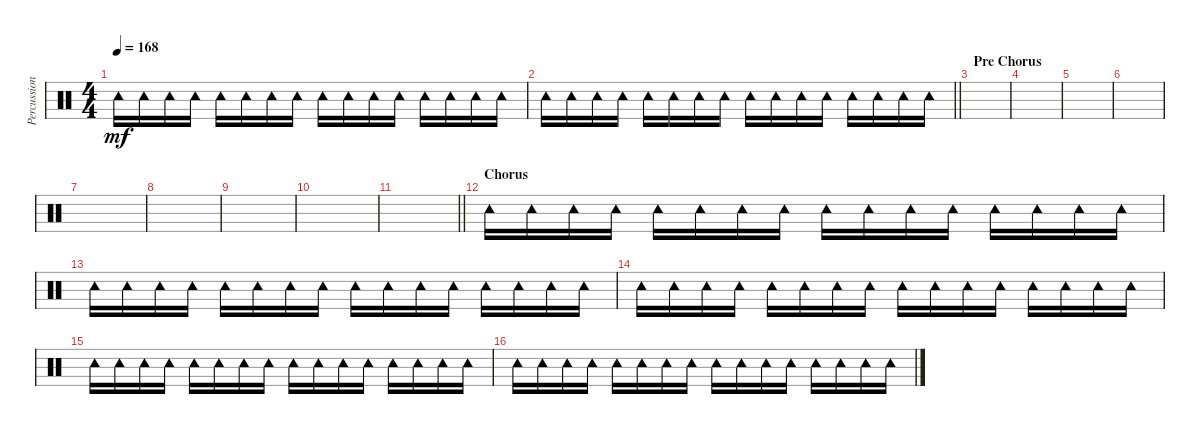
\track ("Percussion" "Percussion") {instrument percussion}
\staff {score}
\articulation defaults
\ts (4 4)
\tempo 168
\clef neutral
\ks c "Tambourine (hit)".16{dy mf} "Tambourine (hit)".16 "Tambourine (hit)".16 "Tambourine (hit)".16 "Tambourine (hit)".16 "Tambourine (hit)".16 "Tambourine (hit)".16 "Tambourine (hit)".16 "Tambourine (hit)".16 "Tambourine (hit)".16 "Tambourine (hit)".16 "Tambourine (hit)".16 "Tambourine (hit)".16 "Tambourine (hit)".16 "Tambourine (hit)".16 "Tambourine (hit)".16
|
\barLineRight lightlight "Tambourine (hit)".16 "Tambourine (hit)".16 "Tambourine (hit)".16 "Tambourine (hit)".16 "Tambourine (hit)".16 "Tambourine (hit)".16 "Tambourine (hit)".16 "Tambourine (hit)".16 "Tambourine (hit)".16 "Tambourine (hit)".16 "Tambourine (hit)".16 "Tambourine (hit)".16 "Tambourine (hit)".16 "Tambourine (hit)".16 "Tambourine (hit)".16 "Tambourine (hit)".16
|
\section ("" "Pre Chorus")
|
|
|
|
|
|
|
|
\barLineRight lightlight
|
\section ("" "Chorus")
"Tambourine (hit)".16 "Tambourine (hit)".16 "Tambourine (hit)".16 "Tambourine (hit)".16 "Tambourine (hit)".16 "Tambourine (hit)".16 "Tambourine (hit)".16 "Tambourine (hit)".16 "Tambourine (hit)".16 "Tambourine (hit)".16 "Tambourine (hit)".16 "Tambourine (hit)".16 "Tambourine (hit)".16 "Tambourine (hit)".16 "Tambourine (hit)".16 "Tambourine (hit)".16 |
"Tambourine (hit)".16 "Tambourine (hit)".16 "Tambourine (hit)".16 "Tambourine (hit)".16 "Tambourine (hit)".16 "Tambourine (hit)".16 "Tambourine (hit)".16 "Tambourine (hit)".16 "Tambourine (hit)".16 "Tambourine (hit)".16 "Tambourine (hit)".16 "Tambourine (hit)".16 "Tambourine (hit)".16 "Tambourine (hit)".16 "Tambourine (hit)".16 "Tambourine (hit)".16 |
"Tambourine (hit)".16 "Tambourine (hit)".16 "Tambourine (hit)".16 "Tambourine (hit)".16 "Tambourine (hit)".16 "Tambourine (hit)".16 "Tambourine (hit)".16 "Tambourine (hit)".16 "Tambourine (hit)".16 "Tambourine (hit)".16 "Tambourine (hit)".16 "Tambourine (hit)".16 "Tambourine (hit)".16 "Tambourine (hit)".16 "Tambourine (hit)".16 "Tambourine (hit)".16 |
"Tambourine (hit)".16 "Tambourine (hit)".16 "Tambourine (hit)".16 "Tambourine (hit)".16 "Tambourine (hit)".16 "Tambourine (hit)".16 "Tambourine (hit)".16 "Tambourine (hit)".16 "Tambourine (hit)".16 "Tambourine (hit)".16 "Tambourine (hit)".16 "Tambourine (hit)".16 "Tambourine (hit)".16 "Tambourine (hit)".16 "Tambourine (hit)".16 "Tambourine (hit)".16 |
"Tambourine (hit)".16 "Tambourine (hit)".16 "Tambourine (hit)".16 "Tambourine (hit)".16 "Tambourine (hit)".16 "Tambourine (hit)".16 "Tambourine (hit)".16 "Tambourine (hit)".16 "Tambourine (hit)".16 "Tambourine (hit)".16 "Tambourine (hit)".16 "Tambourine (hit)".16 "Tambourine (hit)".16 "Tambourine (hit)".16 "Tambourine (hit)".16 "Tambourine (hit)".16
